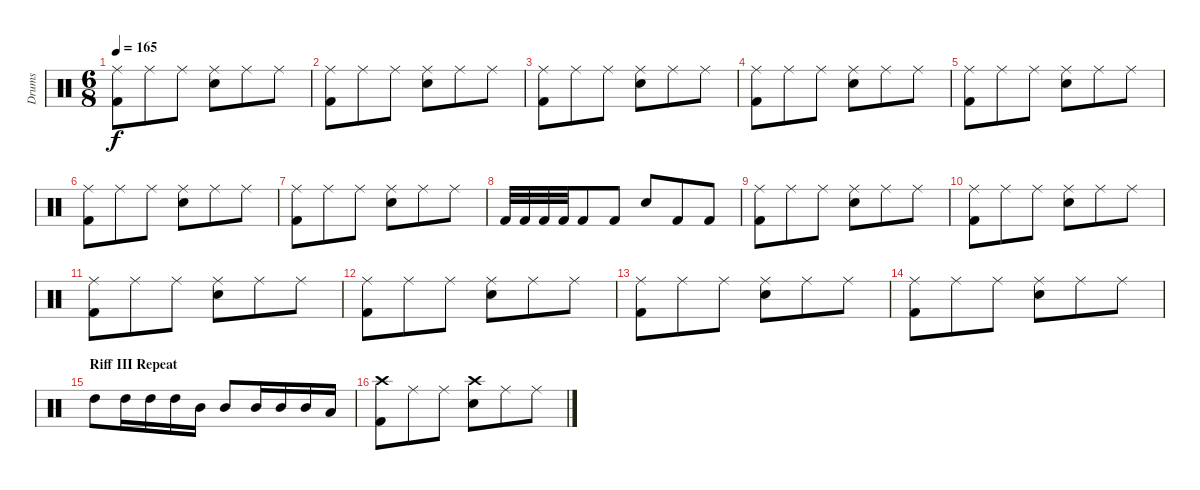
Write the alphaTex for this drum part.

\track ("Drums" "Drums") {instrument percussion}
\staff {score}
\articulation defaults
\ts (6 8)
\tempo 165
\clef neutral
\ks c
("Ride (middle)" "Kick (hit) 2").8{dy f} "Ride (middle)".8 "Ride (middle)".8 ("Ride (middle)" "Electric Snare (hit)").8 "Ride (middle)".8 "Ride (middle)".8 |
("Ride (middle)" "Kick (hit) 2").8 "Ride (middle)".8 "Ride (middle)".8 ("Ride (middle)" "Electric Snare (hit)").8 "Ride (middle)".8 "Ride (middle)".8 |
("Ride (middle)" "Kick (hit) 2").8 "Ride (middle)".8 "Ride (middle)".8 ("Ride (middle)" "Electric Snare (hit)").8 "Ride (middle)".8 "Ride (middle)".8 |
("Ride (middle)" "Kick (hit) 2").8 "Ride (middle)".8 "Ride (middle)".8 ("Ride (middle)" "Electric Snare (hit)").8 "Ride (middle)".8 "Ride (middle)".8 |
("Ride (middle)" "Kick (hit) 2").8 "Ride (middle)".8 "Ride (middle)".8 ("Ride (middle)" "Electric Snare (hit)").8 "Ride (middle)".8 "Ride (middle)".8 |
("Ride (middle)" "Kick (hit) 2").8 "Ride (middle)".8 "Ride (middle)".8 ("Ride (middle)" "Electric Snare (hit)").8 "Ride (middle)".8 "Ride (middle)".8 |
("Ride (middle)" "Kick (hit) 2").8 "Ride (middle)".8 "Ride (middle)".8 ("Ride (middle)" "Electric Snare (hit)").8 "Ride (middle)".8 "Ride (middle)".8 |
"Kick (hit) 2".32 "Kick (hit) 2".32 "Kick (hit) 2".32 "Kick (hit) 2".32 "Kick (hit) 2".8 "Kick (hit) 2".8 "Electric Snare (hit)".8 "Kick (hit) 2".8 "Kick (hit) 2".8 |
("Ride (middle)" "Kick (hit) 2").8 "Ride (middle)".8 "Ride (middle)".8 ("Ride (middle)" "Electric Snare (hit)").8 "Ride (middle)".8 "Ride (middle)".8 |
("Ride (middle)" "Kick (hit) 2").8 "Ride (middle)".8 "Ride (middle)".8 ("Ride (middle)" "Electric Snare (hit)").8 "Ride (middle)".8 "Ride (middle)".8 |
("Ride (middle)" "Kick (hit) 2").8 "Ride (middle)".8 "Ride (middle)".8 ("Ride (middle)" "Electric Snare (hit)").8 "Ride (middle)".8 "Ride (middle)".8 |
("Ride (middle)" "Kick (hit) 2").8 "Ride (middle)".8 "Ride (middle)".8 ("Ride (middle)" "Electric Snare (hit)").8 "Ride (middle)".8 "Ride (middle)".8 |
("Ride (middle)" "Kick (hit) 2").8 "Ride (middle)".8 "Ride (middle)".8 ("Ride (middle)" "Electric Snare (hit)").8 "Ride (middle)".8 "Ride (middle)".8 |
("Ride (middle)" "Kick (hit) 2").8 "Ride (middle)".8 "Ride (middle)".8 ("Ride (middle)" "Electric Snare (hit)").8 "Ride (middle)".8 "Ride (middle)".8 |
\section ("" "Riff III Repeat")
"High Tom (hit)".8 "High Tom (hit)".16 "High Tom (hit)".16 "High Tom (hit)".16 "Mid Tom (hit)".16 "Mid Tom (hit)".8 "Mid Tom (hit)".16 "Mid Tom (hit)".16 "Mid Tom (hit)".16 "Low Tom (hit)".16 |
("Crash high (hit)" "Kick (hit) 2").8 "Ride (middle)".8 "Ride (middle)".8 ("Crash high (hit)" "Electric Snare (hit)").8 "Ride (middle)".8 "Ride (middle)".8
